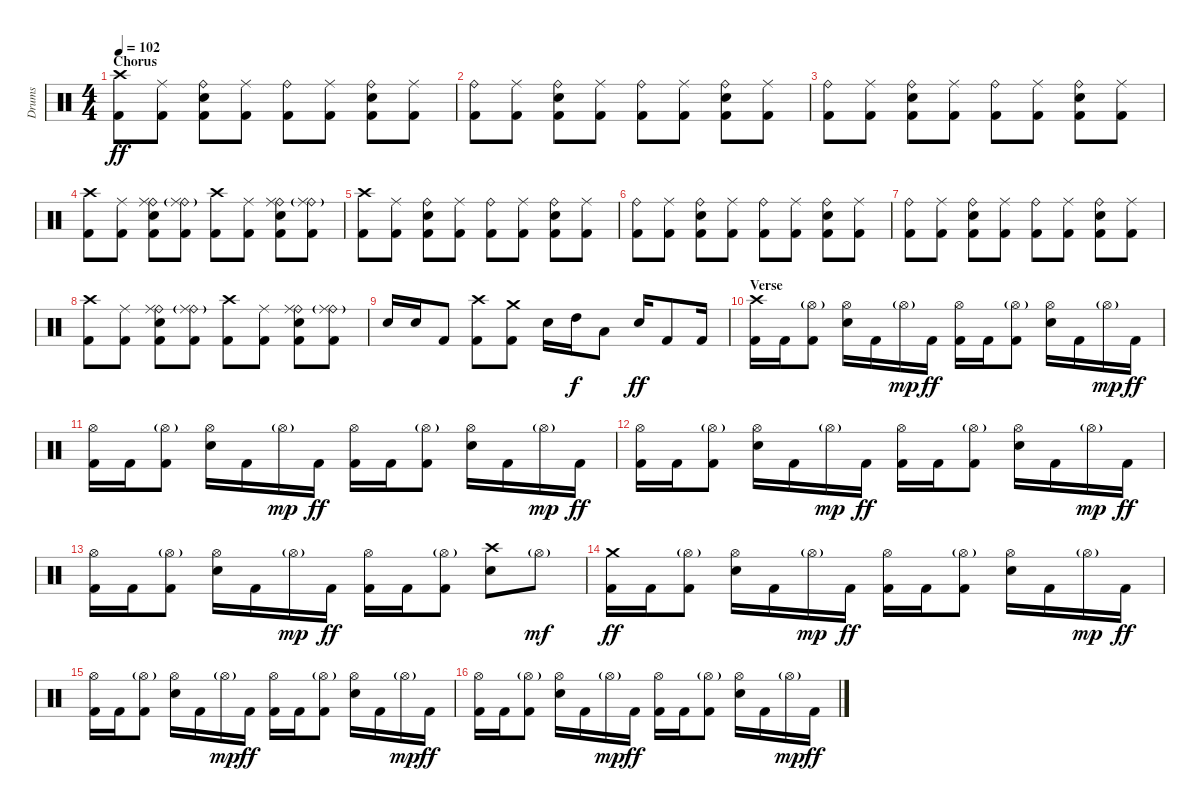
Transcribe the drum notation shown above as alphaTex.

\track ("Drums" "Drums") {instrument percussion}
\staff {score}
\articulation defaults
\ts (4 4)
\section ("" "Chorus")
\tempo 102
\clef neutral
\ks c
("Crash high (hit)" "Kick (hit) 2").8{dy ff} ("Ride (middle)" "Kick (hit) 2").8 ("Ride (bell)" "Electric Snare (hit)" "Kick (hit) 2").8 ("Ride (middle)" "Kick (hit) 2").8 ("Ride (bell)" "Kick (hit) 2").8 ("Ride (middle)" "Kick (hit) 2").8 ("Ride (bell)" "Electric Snare (hit)" "Kick (hit) 2").8 ("Ride (middle)" "Kick (hit) 2").8 |
("Ride (bell)" "Kick (hit) 2").8 ("Ride (middle)" "Kick (hit) 2").8 ("Ride (bell)" "Electric Snare (hit)" "Kick (hit) 2").8 ("Ride (middle)" "Kick (hit) 2").8 ("Ride (bell)" "Kick (hit) 2").8 ("Ride (middle)" "Kick (hit) 2").8 ("Ride (bell)" "Electric Snare (hit)" "Kick (hit) 2").8 ("Ride (middle)" "Kick (hit) 2").8 |
("Ride (bell)" "Kick (hit) 2").8 ("Ride (middle)" "Kick (hit) 2").8 ("Ride (bell)" "Electric Snare (hit)" "Kick (hit) 2").8 ("Ride (middle)" "Kick (hit) 2").8 ("Ride (bell)" "Kick (hit) 2").8 ("Ride (middle)" "Kick (hit) 2").8 ("Ride (bell)" "Electric Snare (hit)" "Kick (hit) 2").8 ("Ride (middle)" "Kick (hit) 2").8 |
("Crash high (hit)" "Kick (hit) 2").8 ("Ride (middle)" "Kick (hit) 2").8 ("Ride (bell)" "Ride (middle)" "Electric Snare (hit)" "Kick (hit) 2").8 ("Ride (bell)"{g} "Ride (middle)" "Kick (hit) 2").8 ("Crash high (hit)" "Kick (hit) 2").8 ("Ride (middle)" "Kick (hit) 2").8 ("Ride (bell)" "Ride (middle)" "Electric Snare (hit)" "Kick (hit) 2").8 ("Ride (bell)"{g} "Ride (middle)" "Kick (hit) 2").8 |
("Crash high (hit)" "Kick (hit) 2").8 ("Ride (middle)" "Kick (hit) 2").8 ("Ride (bell)" "Electric Snare (hit)" "Kick (hit) 2").8 ("Ride (middle)" "Kick (hit) 2").8 ("Ride (bell)" "Kick (hit) 2").8 ("Ride (middle)" "Kick (hit) 2").8 ("Ride (bell)" "Electric Snare (hit)" "Kick (hit) 2").8 ("Ride (middle)" "Kick (hit) 2").8 |
("Ride (bell)" "Kick (hit) 2").8 ("Ride (middle)" "Kick (hit) 2").8 ("Ride (bell)" "Electric Snare (hit)" "Kick (hit) 2").8 ("Ride (middle)" "Kick (hit) 2").8 ("Ride (bell)" "Kick (hit) 2").8 ("Ride (middle)" "Kick (hit) 2").8 ("Ride (bell)" "Electric Snare (hit)" "Kick (hit) 2").8 ("Ride (middle)" "Kick (hit) 2").8 |
("Ride (bell)" "Kick (hit) 2").8 ("Ride (middle)" "Kick (hit) 2").8 ("Ride (bell)" "Electric Snare (hit)" "Kick (hit) 2").8 ("Ride (middle)" "Kick (hit) 2").8 ("Ride (bell)" "Kick (hit) 2").8 ("Ride (middle)" "Kick (hit) 2").8 ("Ride (bell)" "Electric Snare (hit)" "Kick (hit) 2").8 ("Ride (middle)" "Kick (hit) 2").8 |
("Crash high (hit)" "Kick (hit) 2").8 ("Ride (middle)" "Kick (hit) 2").8 ("Ride (bell)" "Ride (middle)" "Electric Snare (hit)" "Kick (hit) 2").8 ("Ride (bell)"{g} "Ride (middle)" "Kick (hit) 2").8 ("Crash high (hit)" "Kick (hit) 2").8 ("Ride (middle)" "Kick (hit) 2").8 ("Ride (bell)" "Ride (middle)" "Electric Snare (hit)" "Kick (hit) 2").8 ("Ride (bell)"{g} "Ride (middle)" "Kick (hit) 2").8 |
"Electric Snare (hit)".16 "Electric Snare (hit)".16 "Kick (hit) 2".8 ("Crash high (hit)" "Kick (hit) 2").8 ("Crash medium (hit)" "Kick (hit) 2").8 "Electric Snare (hit)".16 "High Tom (hit)".16{dy f} "Low Tom (hit)".8 "Electric Snare (hit)".16{dy ff} "Kick (hit) 2".8 "Kick (hit) 2".16 |
\section ("" "Verse")
("Crash high (hit)" "Kick (hit) 2").16 "Kick (hit) 2".16 ("Hi-Hat (open)"{g} "Kick (hit) 2").8 ("Hi-Hat (open)" "Electric Snare (hit)").16 "Kick (hit) 2".16 "Hi-Hat (open)"{g}.16{dy mp} "Kick (hit) 2".16{dy ff} ("Hi-Hat (open)" "Kick (hit) 2").16 "Kick (hit) 2".16 ("Hi-Hat (open)"{g} "Kick (hit) 2").8 ("Hi-Hat (open)" "Electric Snare (hit)").16 "Kick (hit) 2".16 "Hi-Hat (open)"{g}.16{dy mp} "Kick (hit) 2".16{dy ff} |
("Hi-Hat (open)" "Kick (hit) 2").16 "Kick (hit) 2".16 ("Hi-Hat (open)"{g} "Kick (hit) 2").8 ("Hi-Hat (open)" "Electric Snare (hit)").16 "Kick (hit) 2".16 "Hi-Hat (open)"{g}.16{dy mp} "Kick (hit) 2".16{dy ff} ("Hi-Hat (open)" "Kick (hit) 2").16 "Kick (hit) 2".16 ("Hi-Hat (open)"{g} "Kick (hit) 2").8 ("Hi-Hat (open)" "Electric Snare (hit)").16 "Kick (hit) 2".16 "Hi-Hat (open)"{g}.16{dy mp} "Kick (hit) 2".16{dy ff} |
("Hi-Hat (open)" "Kick (hit) 2").16 "Kick (hit) 2".16 ("Hi-Hat (open)"{g} "Kick (hit) 2").8 ("Hi-Hat (open)" "Electric Snare (hit)").16 "Kick (hit) 2".16 "Hi-Hat (open)"{g}.16{dy mp} "Kick (hit) 2".16{dy ff} ("Hi-Hat (open)" "Kick (hit) 2").16 "Kick (hit) 2".16 ("Hi-Hat (open)"{g} "Kick (hit) 2").8 ("Hi-Hat (open)" "Electric Snare (hit)").16 "Kick (hit) 2".16 "Hi-Hat (open)"{g}.16{dy mp} "Kick (hit) 2".16{dy ff} |
("Hi-Hat (open)" "Kick (hit) 2").16 "Kick (hit) 2".16 ("Hi-Hat (open)"{g} "Kick (hit) 2").8 ("Hi-Hat (open)" "Electric Snare (hit)").16 "Kick (hit) 2".16 "Hi-Hat (open)"{g}.16{dy mp} "Kick (hit) 2".16{dy ff} ("Hi-Hat (open)" "Kick (hit) 2").16 "Kick (hit) 2".16 ("Hi-Hat (open)"{g} "Kick (hit) 2").8 ("Crash high (hit)" "Electric Snare (hit)").8 "Hi-Hat (open)"{g}.8{dy mf} |
("Crash medium (hit)" "Kick (hit) 2").16{dy ff} "Kick (hit) 2".16 ("Hi-Hat (open)"{g} "Kick (hit) 2").8 ("Hi-Hat (open)" "Electric Snare (hit)").16 "Kick (hit) 2".16 "Hi-Hat (open)"{g}.16{dy mp} "Kick (hit) 2".16{dy ff} ("Hi-Hat (open)" "Kick (hit) 2").16 "Kick (hit) 2".16 ("Hi-Hat (open)"{g} "Kick (hit) 2").8 ("Hi-Hat (open)" "Electric Snare (hit)").16 "Kick (hit) 2".16 "Hi-Hat (open)"{g}.16{dy mp} "Kick (hit) 2".16{dy ff} |
("Hi-Hat (open)" "Kick (hit) 2").16 "Kick (hit) 2".16 ("Hi-Hat (open)"{g} "Kick (hit) 2").8 ("Hi-Hat (open)" "Electric Snare (hit)").16 "Kick (hit) 2".16 "Hi-Hat (open)"{g}.16{dy mp} "Kick (hit) 2".16{dy ff} ("Hi-Hat (open)" "Kick (hit) 2").16 "Kick (hit) 2".16 ("Hi-Hat (open)"{g} "Kick (hit) 2").8 ("Hi-Hat (open)" "Electric Snare (hit)").16 "Kick (hit) 2".16 "Hi-Hat (open)"{g}.16{dy mp} "Kick (hit) 2".16{dy ff} |
("Hi-Hat (open)" "Kick (hit) 2").16 "Kick (hit) 2".16 ("Hi-Hat (open)"{g} "Kick (hit) 2").8 ("Hi-Hat (open)" "Electric Snare (hit)").16 "Kick (hit) 2".16 "Hi-Hat (open)"{g}.16{dy mp} "Kick (hit) 2".16{dy ff} ("Hi-Hat (open)" "Kick (hit) 2").16 "Kick (hit) 2".16 ("Hi-Hat (open)"{g} "Kick (hit) 2").8 ("Hi-Hat (open)" "Electric Snare (hit)").16 "Kick (hit) 2".16 "Hi-Hat (open)"{g}.16{dy mp} "Kick (hit) 2".16{dy ff}
